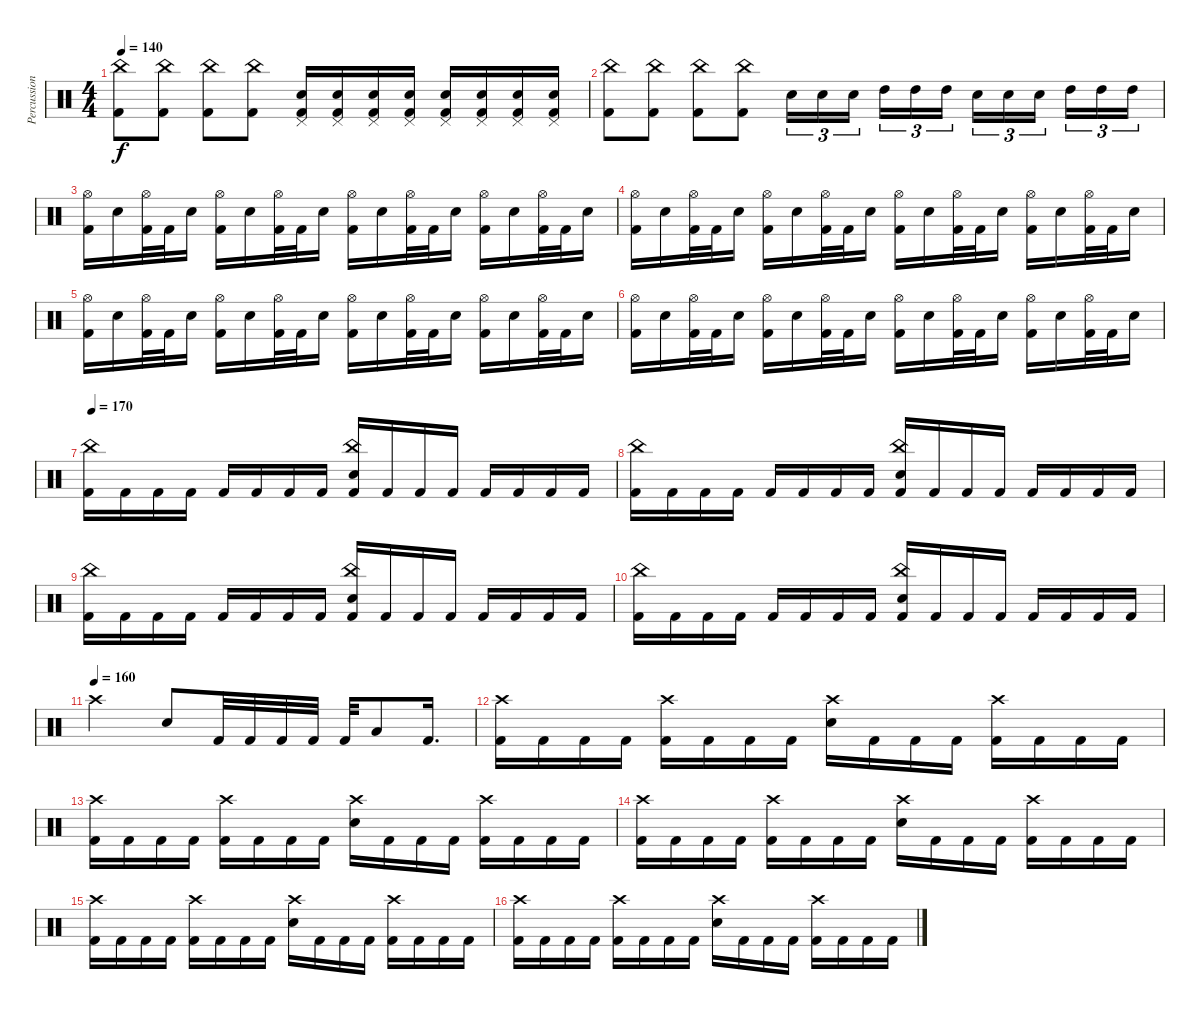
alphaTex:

\track ("Percussion" "Percussion") {instrument percussion}
\staff {score}
\articulation defaults
\ts (4 4)
\tempo 140
\clef neutral
\ks c
("Kick (hit) 2" "China (hit)").8{dy f} ("Kick (hit) 2" "China (hit)").8 ("Kick (hit) 2" "China (hit)").8 ("Kick (hit) 2" "China (hit)").8 ("Pedal Hi-Hat (hit)" "Snare (hit) 2" "Kick (hit) 2").16 ("Pedal Hi-Hat (hit)" "Snare (hit) 2" "Kick (hit) 2").16 ("Pedal Hi-Hat (hit)" "Snare (hit) 2" "Kick (hit) 2").16 ("Pedal Hi-Hat (hit)" "Snare (hit) 2" "Kick (hit) 2").16 ("Pedal Hi-Hat (hit)" "Snare (hit) 2" "Kick (hit) 2").16 ("Pedal Hi-Hat (hit)" "Snare (hit) 2" "Kick (hit) 2").16 ("Pedal Hi-Hat (hit)" "Snare (hit) 2" "Kick (hit) 2").16 ("Pedal Hi-Hat (hit)" "Snare (hit) 2" "Kick (hit) 2").16 |
("Kick (hit) 2" "China (hit)").8 ("Kick (hit) 2" "China (hit)").8 ("Kick (hit) 2" "China (hit)").8 ("Kick (hit) 2" "China (hit)").8 "Snare (hit) 2".16{tu (3 2)} "Snare (hit) 2".16{tu (3 2)} "Snare (hit) 2".16{tu (3 2) beam splitsecondary} "High Tom (hit)".16{tu (3 2)} "High Tom (hit)".16{tu (3 2)} "High Tom (hit)".16{tu (3 2)} "Snare (hit) 2".16{tu (3 2)} "Snare (hit) 2".16{tu (3 2)} "Snare (hit) 2".16{tu (3 2) beam splitsecondary} "High Tom (hit)".16{tu (3 2)} "High Tom (hit)".16{tu (3 2)} "High Tom (hit)".16{tu (3 2)} |
("Kick (hit) 2" "Hi-Hat (open)").16 "Snare (hit) 2".16 ("Kick (hit) 2" "Hi-Hat (open)").32 "Kick (hit) 2".32 "Snare (hit) 2".16 ("Kick (hit) 2" "Hi-Hat (open)").16 "Snare (hit) 2".16 ("Kick (hit) 2" "Hi-Hat (open)").32 "Kick (hit) 2".32 "Snare (hit) 2".16 ("Kick (hit) 2" "Hi-Hat (open)").16 "Snare (hit) 2".16 ("Kick (hit) 2" "Hi-Hat (open)").32 "Kick (hit) 2".32 "Snare (hit) 2".16 ("Kick (hit) 2" "Hi-Hat (open)").16 "Snare (hit) 2".16 ("Kick (hit) 2" "Hi-Hat (open)").32 "Kick (hit) 2".32 "Snare (hit) 2".16 |
("Kick (hit) 2" "Hi-Hat (open)").16 "Snare (hit) 2".16 ("Kick (hit) 2" "Hi-Hat (open)").32 "Kick (hit) 2".32 "Snare (hit) 2".16 ("Kick (hit) 2" "Hi-Hat (open)").16 "Snare (hit) 2".16 ("Kick (hit) 2" "Hi-Hat (open)").32 "Kick (hit) 2".32 "Snare (hit) 2".16 ("Kick (hit) 2" "Hi-Hat (open)").16 "Snare (hit) 2".16 ("Kick (hit) 2" "Hi-Hat (open)").32 "Kick (hit) 2".32 "Snare (hit) 2".16 ("Kick (hit) 2" "Hi-Hat (open)").16 "Snare (hit) 2".16 ("Kick (hit) 2" "Hi-Hat (open)").32 "Kick (hit) 2".32 "Snare (hit) 2".16 |
("Kick (hit) 2" "Hi-Hat (open)").16 "Snare (hit) 2".16 ("Kick (hit) 2" "Hi-Hat (open)").32 "Kick (hit) 2".32 "Snare (hit) 2".16 ("Kick (hit) 2" "Hi-Hat (open)").16 "Snare (hit) 2".16 ("Kick (hit) 2" "Hi-Hat (open)").32 "Kick (hit) 2".32 "Snare (hit) 2".16 ("Kick (hit) 2" "Hi-Hat (open)").16 "Snare (hit) 2".16 ("Kick (hit) 2" "Hi-Hat (open)").32 "Kick (hit) 2".32 "Snare (hit) 2".16 ("Kick (hit) 2" "Hi-Hat (open)").16 "Snare (hit) 2".16 ("Kick (hit) 2" "Hi-Hat (open)").32 "Kick (hit) 2".32 "Snare (hit) 2".16 |
("Kick (hit) 2" "Hi-Hat (open)").16 "Snare (hit) 2".16 ("Kick (hit) 2" "Hi-Hat (open)").32 "Kick (hit) 2".32 "Snare (hit) 2".16 ("Kick (hit) 2" "Hi-Hat (open)").16 "Snare (hit) 2".16 ("Kick (hit) 2" "Hi-Hat (open)").32 "Kick (hit) 2".32 "Snare (hit) 2".16 ("Kick (hit) 2" "Hi-Hat (open)").16 "Snare (hit) 2".16 ("Kick (hit) 2" "Hi-Hat (open)").32 "Kick (hit) 2".32 "Snare (hit) 2".16 ("Kick (hit) 2" "Hi-Hat (open)").16 "Snare (hit) 2".16 ("Kick (hit) 2" "Hi-Hat (open)").32 "Kick (hit) 2".32 "Snare (hit) 2".16 |
\tempo 170
("China (hit)" "Kick (hit) 2").16 "Kick (hit) 2".16 "Kick (hit) 2".16 "Kick (hit) 2".16 "Kick (hit) 2".16 "Kick (hit) 2".16 "Kick (hit) 2".16 "Kick (hit) 2".16 ("Snare (hit) 2" "China (hit)" "Kick (hit) 2").16 "Kick (hit) 2".16 "Kick (hit) 2".16 "Kick (hit) 2".16 "Kick (hit) 2".16 "Kick (hit) 2".16 "Kick (hit) 2".16 "Kick (hit) 2".16 |
("China (hit)" "Kick (hit) 2").16 "Kick (hit) 2".16 "Kick (hit) 2".16 "Kick (hit) 2".16 "Kick (hit) 2".16 "Kick (hit) 2".16 "Kick (hit) 2".16 "Kick (hit) 2".16 ("Snare (hit) 2" "China (hit)" "Kick (hit) 2").16 "Kick (hit) 2".16 "Kick (hit) 2".16 "Kick (hit) 2".16 "Kick (hit) 2".16 "Kick (hit) 2".16 "Kick (hit) 2".16 "Kick (hit) 2".16 |
("China (hit)" "Kick (hit) 2").16 "Kick (hit) 2".16 "Kick (hit) 2".16 "Kick (hit) 2".16 "Kick (hit) 2".16 "Kick (hit) 2".16 "Kick (hit) 2".16 "Kick (hit) 2".16 ("Snare (hit) 2" "China (hit)" "Kick (hit) 2").16 "Kick (hit) 2".16 "Kick (hit) 2".16 "Kick (hit) 2".16 "Kick (hit) 2".16 "Kick (hit) 2".16 "Kick (hit) 2".16 "Kick (hit) 2".16 |
("China (hit)" "Kick (hit) 2").16 "Kick (hit) 2".16 "Kick (hit) 2".16 "Kick (hit) 2".16 "Kick (hit) 2".16 "Kick (hit) 2".16 "Kick (hit) 2".16 "Kick (hit) 2".16 ("Snare (hit) 2" "China (hit)" "Kick (hit) 2").16 "Kick (hit) 2".16 "Kick (hit) 2".16 "Kick (hit) 2".16 "Kick (hit) 2".16 "Kick (hit) 2".16 "Kick (hit) 2".16 "Kick (hit) 2".16 |
\tempo (160)
"Crash high (hit)".2 "Snare (hit) 2".8 "Kick (hit) 2".32 "Kick (hit) 2".32 "Kick (hit) 2".32 "Kick (hit) 2".32 "Kick (hit) 2".32 "Low Tom (hit)".8 "Kick (hit) 2".16{d} |
("Crash high (hit)" "Kick (hit) 2").16 "Kick (hit) 2".16 "Kick (hit) 2".16 "Kick (hit) 2".16 ("Crash high (hit)" "Kick (hit) 2").16 "Kick (hit) 2".16 "Kick (hit) 2".16 "Kick (hit) 2".16 ("Crash high (hit)" "Snare (hit) 2").16 "Kick (hit) 2".16 "Kick (hit) 2".16 "Kick (hit) 2".16 ("Crash high (hit)" "Kick (hit) 2").16 "Kick (hit) 2".16 "Kick (hit) 2".16 "Kick (hit) 2".16 |
("Crash high (hit)" "Kick (hit) 2").16 "Kick (hit) 2".16 "Kick (hit) 2".16 "Kick (hit) 2".16 ("Crash high (hit)" "Kick (hit) 2").16 "Kick (hit) 2".16 "Kick (hit) 2".16 "Kick (hit) 2".16 ("Crash high (hit)" "Snare (hit) 2").16 "Kick (hit) 2".16 "Kick (hit) 2".16 "Kick (hit) 2".16 ("Crash high (hit)" "Kick (hit) 2").16 "Kick (hit) 2".16 "Kick (hit) 2".16 "Kick (hit) 2".16 |
("Crash high (hit)" "Kick (hit) 2").16 "Kick (hit) 2".16 "Kick (hit) 2".16 "Kick (hit) 2".16 ("Crash high (hit)" "Kick (hit) 2").16 "Kick (hit) 2".16 "Kick (hit) 2".16 "Kick (hit) 2".16 ("Crash high (hit)" "Snare (hit) 2").16 "Kick (hit) 2".16 "Kick (hit) 2".16 "Kick (hit) 2".16 ("Crash high (hit)" "Kick (hit) 2").16 "Kick (hit) 2".16 "Kick (hit) 2".16 "Kick (hit) 2".16 |
("Crash high (hit)" "Kick (hit) 2").16 "Kick (hit) 2".16 "Kick (hit) 2".16 "Kick (hit) 2".16 ("Crash high (hit)" "Kick (hit) 2").16 "Kick (hit) 2".16 "Kick (hit) 2".16 "Kick (hit) 2".16 ("Crash high (hit)" "Snare (hit) 2").16 "Kick (hit) 2".16 "Kick (hit) 2".16 "Kick (hit) 2".16 ("Crash high (hit)" "Kick (hit) 2").16 "Kick (hit) 2".16 "Kick (hit) 2".16 "Kick (hit) 2".16 |
("Crash high (hit)" "Kick (hit) 2").16 "Kick (hit) 2".16 "Kick (hit) 2".16 "Kick (hit) 2".16 ("Crash high (hit)" "Kick (hit) 2").16 "Kick (hit) 2".16 "Kick (hit) 2".16 "Kick (hit) 2".16 ("Crash high (hit)" "Snare (hit) 2").16 "Kick (hit) 2".16 "Kick (hit) 2".16 "Kick (hit) 2".16 ("Crash high (hit)" "Kick (hit) 2").16 "Kick (hit) 2".16 "Kick (hit) 2".16 "Kick (hit) 2".16
